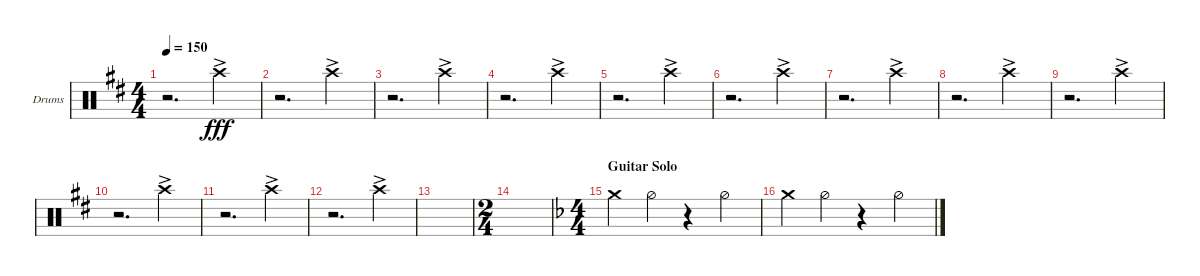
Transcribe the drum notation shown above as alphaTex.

\defaultSystemsLayout 4
\bracketExtendMode groupsimilarinstruments
\firstSystemTrackNameOrientation horizontal
\otherSystemsTrackNameOrientation horizontal
\track ("Drumkit" "Drums") {instrument percussion}
\staff {score}
\articulation defaults
\ts (4 4)
\tempo 150
\clef neutral
\ks d
r.2{d dy fff} "Crash high (hit)"{ac}.4 |
r.2{d} "Crash high (hit)"{ac}.4 |
r.2{d} "Crash high (hit)"{ac}.4 |
r.2{d} "Crash high (hit)"{ac}.4 |
r.2{d} "Crash high (hit)"{ac}.4 |
r.2{d} "Crash high (hit)"{ac}.4 |
r.2{d} "Crash high (hit)"{ac}.4 |
r.2{d} "Crash high (hit)"{ac}.4 |
r.2{d} "Crash high (hit)"{ac}.4 |
r.2{d} "Crash high (hit)"{ac}.4 |
r.2{d} "Crash high (hit)"{ac}.4 |
r.2{d} "Crash high (hit)"{ac}.4 |
|
\ts (2 4)
|
\ts (4 4)
\section ("" "Guitar Solo")
\ks f "Crash medium (hit)".4 "Hi-Hat (half)".4
r.4 "Hi-Hat (half)".4 |
"Crash medium (hit)".4 "Hi-Hat (half)".4 r.4 "Hi-Hat (half)".4
